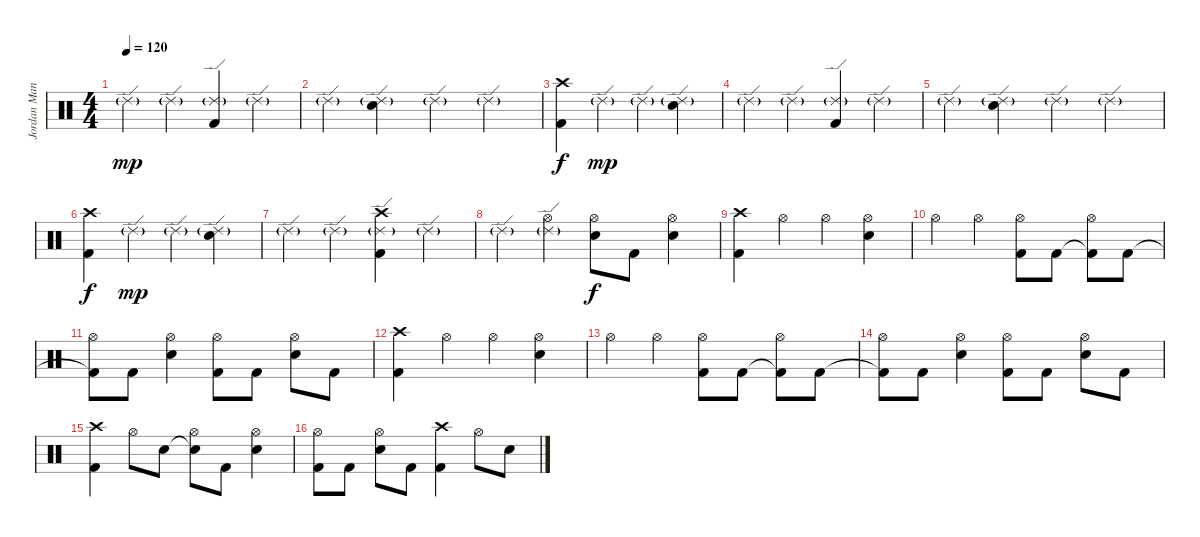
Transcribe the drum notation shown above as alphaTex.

\track ("Jordan Mancino - Drums" "Jordan Man") {instrument percussion}
\staff {score}
\articulation defaults
\ts (4 4)
\tempo 120
\clef neutral
\ks c "Ride (edge) 2"{g}.4{dy mp} "Ride (edge) 2"{g}.4
("Kick (hit) 2" "Ride (edge) 2"{g}).4 "Ride (edge) 2"{g}.4 |
"Ride (edge) 2"{g}.4 ("Snare (hit) 2" "Ride (edge) 2"{g}).4 "Ride (edge) 2"{g}.4 "Ride (edge) 2"{g}.4 |
("Kick (hit) 2" "Crash high (hit)").4{dy f} "Ride (edge) 2"{g}.4{dy mp} "Ride (edge) 2"{g}.4 ("Snare (hit) 2" "Ride (edge) 2"{g}).4 |
"Ride (edge) 2"{g}.4 "Ride (edge) 2"{g}.4 ("Kick (hit) 2" "Ride (edge) 2"{g}).4 "Ride (edge) 2"{g}.4 |
"Ride (edge) 2"{g}.4 ("Snare (hit) 2" "Ride (edge) 2"{g}).4 "Ride (edge) 2"{g}.4 "Ride (edge) 2"{g}.4 |
("Kick (hit) 2" "Crash high (hit)").4{dy f} "Ride (edge) 2"{g}.4{dy mp} "Ride (edge) 2"{g}.4 ("Snare (hit) 2" "Ride (edge) 2"{g}).4 |
"Ride (edge) 2"{g}.4 "Ride (edge) 2"{g}.4 ("Kick (hit) 2" "Ride (edge) 2"{g} "Crash high (hit)").4 "Ride (edge) 2"{g}.4 |
"Ride (edge) 2"{g}.4 ("Hi-Hat (open)" "Ride (edge) 2"{g}).4 ("Snare (hit) 2" "Hi-Hat (open)").8{dy f} "Kick (hit) 2".8 ("Snare (hit) 2" "Hi-Hat (open)").4 |
("Kick (hit) 2" "Crash high (hit)").4 "Hi-Hat (open)".4 "Hi-Hat (open)".4 ("Snare (hit) 2" "Hi-Hat (open)").4 |
"Hi-Hat (open)".4 "Hi-Hat (open)".4 ("Kick (hit) 2" "Hi-Hat (open)").8 "Kick (hit) 2".8 ("Kick (hit) 2"{t} "Hi-Hat (open)").8 "Kick (hit) 2".8 |
("Kick (hit) 2"{t} "Hi-Hat (open)").8 "Kick (hit) 2".8 ("Snare (hit) 2" "Hi-Hat (open)").4 ("Kick (hit) 2" "Hi-Hat (open)").8 "Kick (hit) 2".8 ("Snare (hit) 2" "Hi-Hat (open)").8 "Kick (hit) 2".8 |
("Kick (hit) 2" "Crash high (hit)").4 "Hi-Hat (open)".4 "Hi-Hat (open)".4 ("Snare (hit) 2" "Hi-Hat (open)").4 |
"Hi-Hat (open)".4 "Hi-Hat (open)".4 ("Kick (hit) 2" "Hi-Hat (open)").8 "Kick (hit) 2".8 ("Kick (hit) 2"{t} "Hi-Hat (open)").8 "Kick (hit) 2".8 |
("Kick (hit) 2"{t} "Hi-Hat (open)").8 "Kick (hit) 2".8 ("Snare (hit) 2" "Hi-Hat (open)").4 ("Kick (hit) 2" "Hi-Hat (open)").8 "Kick (hit) 2".8 ("Snare (hit) 2" "Hi-Hat (open)").8 "Kick (hit) 2".8 |
("Kick (hit) 2" "Crash high (hit)").4 "Hi-Hat (open)".8 "Snare (hit) 2".8 ("Snare (hit) 2"{t} "Hi-Hat (open)").8 "Kick (hit) 2".8 ("Snare (hit) 2" "Hi-Hat (open)").4 |
("Kick (hit) 2" "Hi-Hat (open)").8 "Kick (hit) 2".8 ("Snare (hit) 2" "Hi-Hat (open)").8 "Kick (hit) 2".8 ("Kick (hit) 2" "Crash high (hit)").4 "Hi-Hat (open)".8 "Snare (hit) 2".8
